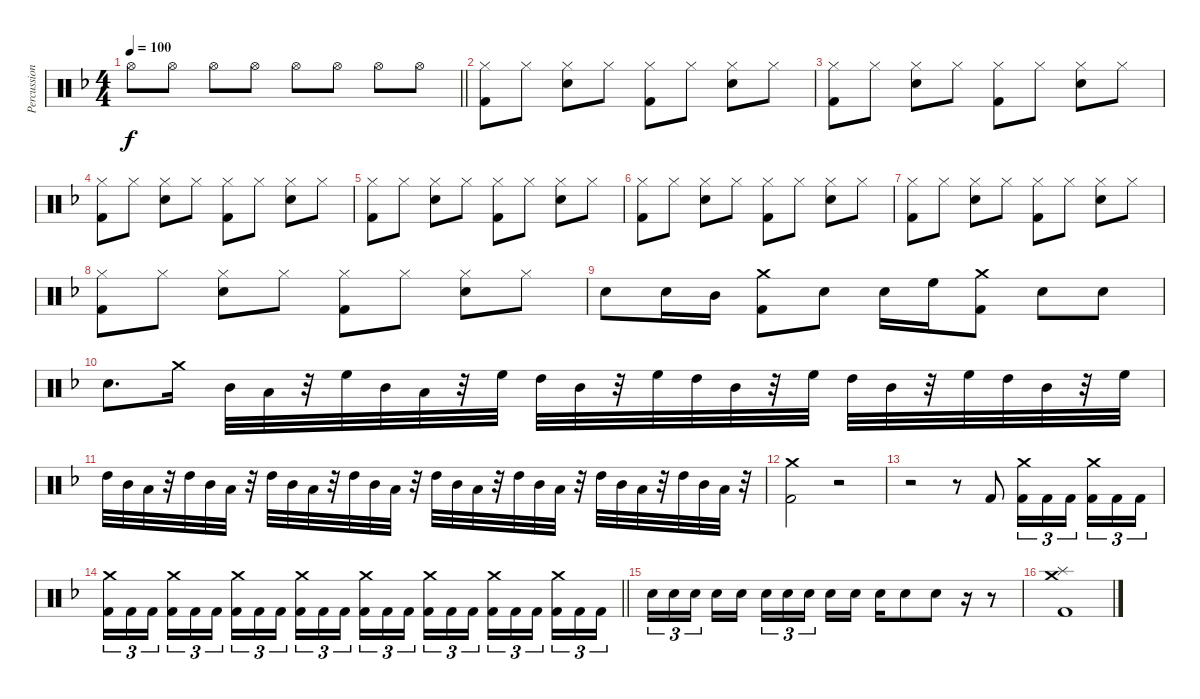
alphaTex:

\track ("Percussion" "Percussion") {instrument percussion}
\staff {score}
\articulation defaults
\ts (4 4)
\tempo 100
\clef neutral
\barLineRight lightlight
\ks f "Hi-Hat (open)".8{dy f} "Hi-Hat (open)".8 "Hi-Hat (open)".8 "Hi-Hat (open)".8 "Hi-Hat (open)".8 "Hi-Hat (open)".8 "Hi-Hat (open)".8 "Hi-Hat (open)".8
|
("Kick (hit) 2" "Hi-Hat (closed)").8 "Hi-Hat (closed)".8 ("Hi-Hat (closed)" "Snare (hit) 2").8 "Hi-Hat (closed)".8 ("Kick (hit) 2" "Hi-Hat (closed)").8 "Hi-Hat (closed)".8 ("Hi-Hat (closed)" "Snare (hit) 2").8 "Hi-Hat (closed)".8 |
("Kick (hit) 2" "Hi-Hat (closed)").8 "Hi-Hat (closed)".8 ("Hi-Hat (closed)" "Snare (hit) 2").8 "Hi-Hat (closed)".8 ("Kick (hit) 2" "Hi-Hat (closed)").8 "Hi-Hat (closed)".8 ("Hi-Hat (closed)" "Snare (hit) 2").8 "Hi-Hat (closed)".8 |
("Kick (hit) 2" "Hi-Hat (closed)").8 "Hi-Hat (closed)".8 ("Hi-Hat (closed)" "Snare (hit) 2").8 "Hi-Hat (closed)".8 ("Kick (hit) 2" "Hi-Hat (closed)").8 "Hi-Hat (closed)".8 ("Hi-Hat (closed)" "Snare (hit) 2").8 "Hi-Hat (closed)".8 |
("Kick (hit) 2" "Hi-Hat (closed)").8 "Hi-Hat (closed)".8 ("Hi-Hat (closed)" "Snare (hit) 2").8 "Hi-Hat (closed)".8 ("Kick (hit) 2" "Hi-Hat (closed)").8 "Hi-Hat (closed)".8 ("Hi-Hat (closed)" "Snare (hit) 2").8 "Hi-Hat (closed)".8 |
("Kick (hit) 2" "Hi-Hat (closed)").8 "Hi-Hat (closed)".8 ("Hi-Hat (closed)" "Snare (hit) 2").8 "Hi-Hat (closed)".8 ("Kick (hit) 2" "Hi-Hat (closed)").8 "Hi-Hat (closed)".8 ("Hi-Hat (closed)" "Snare (hit) 2").8 "Hi-Hat (closed)".8 |
("Kick (hit) 2" "Hi-Hat (closed)").8 "Hi-Hat (closed)".8 ("Hi-Hat (closed)" "Snare (hit) 2").8 "Hi-Hat (closed)".8 ("Kick (hit) 2" "Hi-Hat (closed)").8 "Hi-Hat (closed)".8 ("Hi-Hat (closed)" "Snare (hit) 2").8 "Hi-Hat (closed)".8 |
("Kick (hit) 2" "Hi-Hat (closed)").8 "Hi-Hat (closed)".8 ("Hi-Hat (closed)" "Snare (hit) 2").8 "Hi-Hat (closed)".8 ("Kick (hit) 2" "Hi-Hat (closed)").8 "Hi-Hat (closed)".8 ("Hi-Hat (closed)" "Snare (hit) 2").8 "Hi-Hat (closed)".8 |
"Snare (hit) 2".8 "Snare (hit) 2".16 "Mid Tom (hit)".16 ("Crash medium (hit)" "Kick (hit) 2").8 "Snare (hit) 2".8 "Snare (hit) 2".16 "High Floor Tom (hit)".16 ("Crash medium (hit)" "Kick (hit) 2").8 "Snare (hit) 2".8 "Snare (hit) 2".8 |
"Snare (hit) 2".8{d} "Crash medium (hit)".16 "Mid Tom (hit)".32 "Low Tom (hit)".32 r.32 "High Floor Tom (hit)".32 "Mid Tom (hit)".32 "Low Tom (hit)".32 r.32 "High Floor Tom (hit)".32 "High Tom (hit)".32 "Mid Tom (hit)".32 r.32 "High Floor Tom (hit)".32 "High Tom (hit)".32 "Mid Tom (hit)".32 r.32 "High Floor Tom (hit)".32 "High Tom (hit)".32 "Mid Tom (hit)".32 r.32 "High Floor Tom (hit)".32 "High Tom (hit)".32 "Mid Tom (hit)".32 r.32 "High Floor Tom (hit)".32 |
"High Tom (hit)".32 "Mid Tom (hit)".32 "Low Tom (hit)".32 r.32 "High Tom (hit)".32 "Mid Tom (hit)".32 "Low Tom (hit)".32 r.32 "High Tom (hit)".32 "Mid Tom (hit)".32 "Low Tom (hit)".32 r.32 "High Tom (hit)".32 "Mid Tom (hit)".32 "Low Tom (hit)".32 r.32 "High Tom (hit)".32 "Mid Tom (hit)".32 "Low Tom (hit)".32 r.32 "High Tom (hit)".32 "Mid Tom (hit)".32 "Low Tom (hit)".32 r.32 "High Tom (hit)".32 "Mid Tom (hit)".32 "Low Tom (hit)".32 r.32 "High Tom (hit)".32 "Mid Tom (hit)".32 "Low Tom (hit)".32 r.32 |
("Kick (hit) 2" "Crash medium (hit)").2 r.2 |
r.2 r.8 "Kick (hit) 2".8 ("Kick (hit) 2" "Crash medium (hit)").16{tu (3 2)} "Kick (hit) 2".16{tu (3 2)} "Kick (hit) 2".16{tu (3 2) beam splitsecondary} ("Crash medium (hit)" "Kick (hit) 2").16{tu (3 2)} "Kick (hit) 2".16{tu (3 2)} "Kick (hit) 2".16{tu (3 2)} |
\barLineRight lightlight
("Kick (hit) 2" "Crash medium (hit)").16{tu (3 2)} "Kick (hit) 2".16{tu (3 2)} "Kick (hit) 2".16{tu (3 2) beam splitsecondary} ("Crash medium (hit)" "Kick (hit) 2").16{tu (3 2)} "Kick (hit) 2".16{tu (3 2)} "Kick (hit) 2".16{tu (3 2)} ("Kick (hit) 2" "Crash medium (hit)").16{tu (3 2)} "Kick (hit) 2".16{tu (3 2)} "Kick (hit) 2".16{tu (3 2) beam splitsecondary} ("Crash medium (hit)" "Kick (hit) 2").16{tu (3 2)} "Kick (hit) 2".16{tu (3 2)} "Kick (hit) 2".16{tu (3 2)} ("Kick (hit) 2" "Crash medium (hit)").16{tu (3 2)} "Kick (hit) 2".16{tu (3 2)} "Kick (hit) 2".16{tu (3 2) beam splitsecondary} ("Crash medium (hit)" "Kick (hit) 2").16{tu (3 2)} "Kick (hit) 2".16{tu (3 2)} "Kick (hit) 2".16{tu (3 2)} ("Kick (hit) 2" "Crash medium (hit)").16{tu (3 2)} "Kick (hit) 2".16{tu (3 2)} "Kick (hit) 2".16{tu (3 2) beam splitsecondary} ("Crash medium (hit)" "Kick (hit) 2").16{tu (3 2)} "Kick (hit) 2".16{tu (3 2)} "Kick (hit) 2".16{tu (3 2)} |
"Snare (hit) 2".16{tu (3 2)} "Snare (hit) 2".16{tu (3 2)} "Snare (hit) 2".16{tu (3 2) beam splitsecondary} "Snare (hit) 2".16 "Snare (hit) 2".16 "Snare (hit) 2".16{tu (3 2)} "Snare (hit) 2".16{tu (3 2)} "Snare (hit) 2".16{tu (3 2) beam splitsecondary} "Snare (hit) 2".16 "Snare (hit) 2".16 "Snare (hit) 2".16 "Snare (hit) 2".8 "Snare (hit) 2".8 r.16 r.8 |
("Kick (hit) 2" "Crash medium (hit)" "Splash (hit)").1
